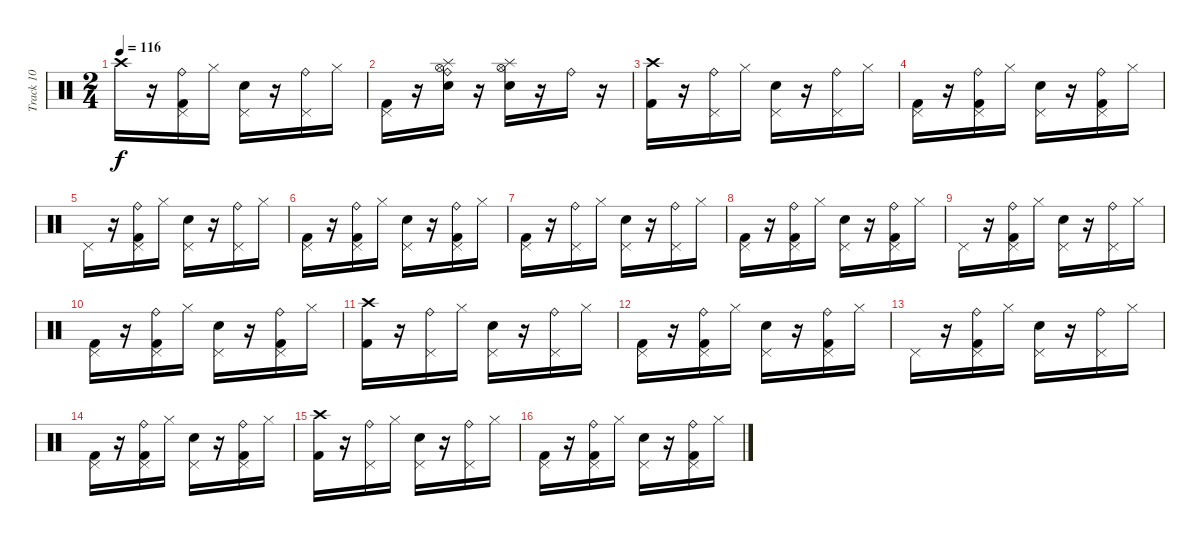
\track ("Track 10" "Track 10") {instrument percussion}
\staff {score}
\articulation defaults
\ts (2 4)
\tempo 116
\clef neutral
\ks c "Crash high (hit)".16{dy f}
r.16 ("Pedal Hi-Hat (hit)" "Kick (hit) 2" "Ride (bell)").16 "Hi-Hat (closed)".16 ("Pedal Hi-Hat (hit)" "Electric Snare (hit)").16 r.16 ("Pedal Hi-Hat (hit)" "Ride (bell)").16 "Hi-Hat (closed)".16 |
("Pedal Hi-Hat (hit)" "Kick (hit) 2").16 r.16 ("Splash (hit)" "Hi-Hat (open)" "Ride (bell)" "Electric Snare (hit)").16 r.16 ("Splash (hit)" "Hi-Hat (open)" "Electric Snare (hit)").16 r.16 "Ride (bell)".16 r.16 |
("Crash high (hit)" "Kick (hit) 2").16 r.16 ("Ride (bell)" "Pedal Hi-Hat (hit)").16 "Hi-Hat (closed)".16 ("Pedal Hi-Hat (hit)" "Electric Snare (hit)").16 r.16 ("Pedal Hi-Hat (hit)" "Ride (bell)").16 "Hi-Hat (closed)".16 |
("Pedal Hi-Hat (hit)" "Kick (hit) 2").16 r.16 ("Ride (bell)" "Kick (hit) 2" "Pedal Hi-Hat (hit)").16 "Hi-Hat (closed)".16 ("Pedal Hi-Hat (hit)" "Electric Snare (hit)").16 r.16 ("Kick (hit) 2" "Pedal Hi-Hat (hit)" "Ride (bell)").16 "Hi-Hat (closed)".16 |
"Pedal Hi-Hat (hit)".16 r.16 ("Pedal Hi-Hat (hit)" "Kick (hit) 2" "Ride (bell)").16 "Hi-Hat (closed)".16 ("Pedal Hi-Hat (hit)" "Electric Snare (hit)").16 r.16 ("Pedal Hi-Hat (hit)" "Ride (bell)").16 "Hi-Hat (closed)".16 |
("Pedal Hi-Hat (hit)" "Kick (hit) 2").16 r.16 ("Pedal Hi-Hat (hit)" "Ride (bell)" "Kick (hit) 2").16 "Hi-Hat (closed)".16 ("Pedal Hi-Hat (hit)" "Electric Snare (hit)").16 r.16 ("Pedal Hi-Hat (hit)" "Ride (bell)" "Kick (hit) 2").16 "Hi-Hat (closed)".16 |
("Pedal Hi-Hat (hit)" "Kick (hit) 2").16 r.16 ("Ride (bell)" "Pedal Hi-Hat (hit)").16 "Hi-Hat (closed)".16 ("Pedal Hi-Hat (hit)" "Electric Snare (hit)").16 r.16 ("Pedal Hi-Hat (hit)" "Ride (bell)").16 "Hi-Hat (closed)".16 |
("Pedal Hi-Hat (hit)" "Kick (hit) 2").16 r.16 ("Ride (bell)" "Kick (hit) 2" "Pedal Hi-Hat (hit)").16 "Hi-Hat (closed)".16 ("Pedal Hi-Hat (hit)" "Electric Snare (hit)").16 r.16 ("Kick (hit) 2" "Pedal Hi-Hat (hit)" "Ride (bell)").16 "Hi-Hat (closed)".16 |
"Pedal Hi-Hat (hit)".16 r.16 ("Pedal Hi-Hat (hit)" "Kick (hit) 2" "Ride (bell)").16 "Hi-Hat (closed)".16 ("Pedal Hi-Hat (hit)" "Electric Snare (hit)").16 r.16 ("Pedal Hi-Hat (hit)" "Ride (bell)").16 "Hi-Hat (closed)".16 |
("Pedal Hi-Hat (hit)" "Kick (hit) 2").16 r.16 ("Pedal Hi-Hat (hit)" "Ride (bell)" "Kick (hit) 2").16 "Hi-Hat (closed)".16 ("Pedal Hi-Hat (hit)" "Electric Snare (hit)").16 r.16 ("Pedal Hi-Hat (hit)" "Ride (bell)" "Kick (hit) 2").16 "Hi-Hat (closed)".16 |
("Crash high (hit)" "Kick (hit) 2").16 r.16 ("Ride (bell)" "Pedal Hi-Hat (hit)").16 "Hi-Hat (closed)".16 ("Pedal Hi-Hat (hit)" "Electric Snare (hit)").16 r.16 ("Pedal Hi-Hat (hit)" "Ride (bell)").16 "Hi-Hat (closed)".16 |
("Pedal Hi-Hat (hit)" "Kick (hit) 2").16 r.16 ("Ride (bell)" "Kick (hit) 2" "Pedal Hi-Hat (hit)").16 "Hi-Hat (closed)".16 ("Pedal Hi-Hat (hit)" "Electric Snare (hit)").16 r.16 ("Kick (hit) 2" "Pedal Hi-Hat (hit)" "Ride (bell)").16 "Hi-Hat (closed)".16 |
"Pedal Hi-Hat (hit)".16 r.16 ("Pedal Hi-Hat (hit)" "Kick (hit) 2" "Ride (bell)").16 "Hi-Hat (closed)".16 ("Pedal Hi-Hat (hit)" "Electric Snare (hit)").16 r.16 ("Pedal Hi-Hat (hit)" "Ride (bell)").16 "Hi-Hat (closed)".16 |
("Pedal Hi-Hat (hit)" "Kick (hit) 2").16 r.16 ("Pedal Hi-Hat (hit)" "Ride (bell)" "Kick (hit) 2").16 "Hi-Hat (closed)".16 ("Pedal Hi-Hat (hit)" "Electric Snare (hit)").16 r.16 ("Pedal Hi-Hat (hit)" "Ride (bell)" "Kick (hit) 2").16 "Hi-Hat (closed)".16 |
("Crash high (hit)" "Kick (hit) 2").16 r.16 ("Ride (bell)" "Pedal Hi-Hat (hit)").16 "Hi-Hat (closed)".16 ("Pedal Hi-Hat (hit)" "Electric Snare (hit)").16 r.16 ("Pedal Hi-Hat (hit)" "Ride (bell)").16 "Hi-Hat (closed)".16 |
("Pedal Hi-Hat (hit)" "Kick (hit) 2").16 r.16 ("Ride (bell)" "Kick (hit) 2" "Pedal Hi-Hat (hit)").16 "Hi-Hat (closed)".16 ("Pedal Hi-Hat (hit)" "Electric Snare (hit)").16 r.16 ("Kick (hit) 2" "Pedal Hi-Hat (hit)" "Ride (bell)").16 "Hi-Hat (closed)".16
